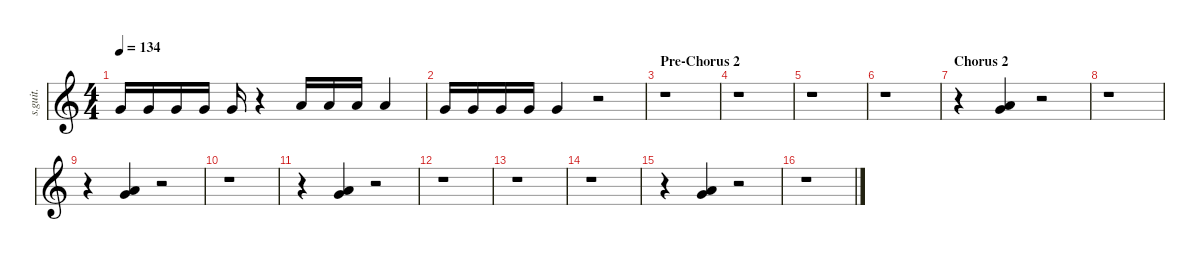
\defaultSystemsLayout 4
\hideDynamics
\bracketExtendMode nobrackets
\track ("Shawn Crahan" "s.guit.") {instrument percussion}
\staff {score}
\articulation defaults
\ts (4 4)
\tempo 134
\clef g2
\ks c "Very Low Tom (hit)".16{dy f} "Very Low Tom (hit)".16 "Very Low Tom (hit)".16 "Very Low Tom (hit)".16 "Very Low Tom (hit)".16
r.4 "Low Floor Tom (hit)".16 "Low Floor Tom (hit)".16 "Low Floor Tom (hit)".16 "Low Floor Tom (hit)".4 |
"Very Low Tom (hit)".16 "Very Low Tom (hit)".16 "Very Low Tom (hit)".16 "Very Low Tom (hit)".16 "Very Low Tom (hit)".4 r.2 |
\section ("" "Pre-Chorus 2")
r.1 |
r.1 |
r.1 |
r.1 |
\section ("" "Chorus 2")
r.4 ("Very Low Tom (hit)" "Low Floor Tom (hit)").4 r.2 |
r.1 |
r.4 ("Very Low Tom (hit)" "Low Floor Tom (hit)").4 r.2 |
r.1 |
r.4 ("Very Low Tom (hit)" "Low Floor Tom (hit)").4 r.2 |
r.1 |
r.1 |
r.1 |
r.4 ("Very Low Tom (hit)" "Low Floor Tom (hit)").4 r.2 |
r.1
